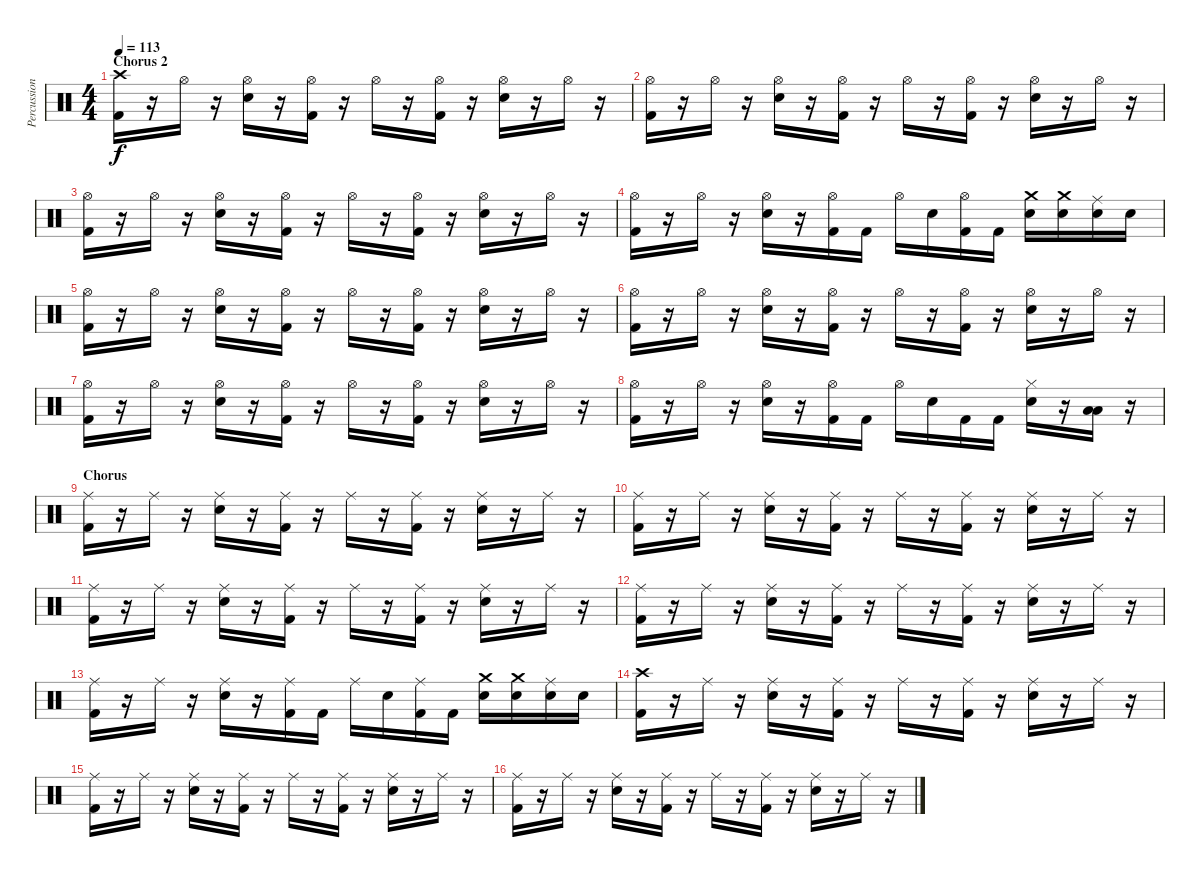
\track ("Percussion" "Percussion") {instrument percussion}
\staff {score}
\articulation defaults
\ts (4 4)
\section ("" "Chorus 2")
\tempo 113
\clef neutral
\ks c
("Crash high (hit)" "Kick (hit) 2").16{dy f} r.16 "Hi-Hat (open)".16 r.16 ("Hi-Hat (open)" "Snare (hit) 2").16 r.16 ("Hi-Hat (open)" "Kick (hit) 2").16 r.16 "Hi-Hat (open)".16 r.16 ("Hi-Hat (open)" "Kick (hit) 2").16 r.16 ("Hi-Hat (open)" "Snare (hit) 2").16 r.16 "Hi-Hat (open)".16 r.16 |
("Hi-Hat (open)" "Kick (hit) 2").16 r.16 "Hi-Hat (open)".16 r.16 ("Hi-Hat (open)" "Snare (hit) 2").16 r.16 ("Hi-Hat (open)" "Kick (hit) 2").16 r.16 "Hi-Hat (open)".16 r.16 ("Hi-Hat (open)" "Kick (hit) 2").16 r.16 ("Hi-Hat (open)" "Snare (hit) 2").16 r.16 "Hi-Hat (open)".16 r.16 |
("Hi-Hat (open)" "Kick (hit) 2").16 r.16 "Hi-Hat (open)".16 r.16 ("Hi-Hat (open)" "Snare (hit) 2").16 r.16 ("Hi-Hat (open)" "Kick (hit) 2").16 r.16 "Hi-Hat (open)".16 r.16 ("Hi-Hat (open)" "Kick (hit) 2").16 r.16 ("Hi-Hat (open)" "Snare (hit) 2").16 r.16 "Hi-Hat (open)".16 r.16 |
("Hi-Hat (open)" "Kick (hit) 2").16 r.16 "Hi-Hat (open)".16 r.16 ("Hi-Hat (open)" "Snare (hit) 2").16 r.16 ("Hi-Hat (open)" "Kick (hit) 2").16 "Kick (hit) 2".16 "Hi-Hat (open)".16 "Snare (hit) 2".16 ("Hi-Hat (open)" "Kick (hit) 2").16 "Kick (hit) 2".16 ("Crash medium (hit)" "Snare (hit) 2").16 ("Crash medium (hit)" "Snare (hit) 2").16 ("Ride (middle)" "Snare (hit) 2").16 "Snare (hit) 2".16 |
("Hi-Hat (open)" "Kick (hit) 2").16 r.16 "Hi-Hat (open)".16 r.16 ("Hi-Hat (open)" "Snare (hit) 2").16 r.16 ("Hi-Hat (open)" "Kick (hit) 2").16 r.16 "Hi-Hat (open)".16 r.16 ("Hi-Hat (open)" "Kick (hit) 2").16 r.16 ("Hi-Hat (open)" "Snare (hit) 2").16 r.16 "Hi-Hat (open)".16 r.16 |
("Hi-Hat (open)" "Kick (hit) 2").16 r.16 "Hi-Hat (open)".16 r.16 ("Hi-Hat (open)" "Snare (hit) 2").16 r.16 ("Hi-Hat (open)" "Kick (hit) 2").16 r.16 "Hi-Hat (open)".16 r.16 ("Hi-Hat (open)" "Kick (hit) 2").16 r.16 ("Hi-Hat (open)" "Snare (hit) 2").16 r.16 "Hi-Hat (open)".16 r.16 |
("Hi-Hat (open)" "Kick (hit) 2").16 r.16 "Hi-Hat (open)".16 r.16 ("Hi-Hat (open)" "Snare (hit) 2").16 r.16 ("Hi-Hat (open)" "Kick (hit) 2").16 r.16 "Hi-Hat (open)".16 r.16 ("Hi-Hat (open)" "Kick (hit) 2").16 r.16 ("Hi-Hat (open)" "Snare (hit) 2").16 r.16 "Hi-Hat (open)".16 r.16 |
("Hi-Hat (open)" "Kick (hit) 2").16 r.16 "Hi-Hat (open)".16 r.16 ("Hi-Hat (open)" "Snare (hit) 2").16 r.16 ("Hi-Hat (open)" "Kick (hit) 2").16 "Kick (hit) 2".16 "Hi-Hat (open)".16 "Snare (hit) 2".16 "Kick (hit) 2".16 "Kick (hit) 2".16 ("Hi-Hat (closed)" "Snare (hit) 2").16 r.16 ("Low Tom (hit)" "Low Tom (hit)").16 r.16 |
\section ("" "Chorus")
("Ride (middle)" "Kick (hit) 2").16 r.16 "Ride (middle)".16 r.16 ("Ride (middle)" "Snare (hit) 2").16 r.16 ("Ride (middle)" "Kick (hit) 2").16 r.16 "Ride (middle)".16 r.16 ("Ride (middle)" "Kick (hit) 2").16 r.16 ("Ride (middle)" "Snare (hit) 2").16 r.16 "Ride (middle)".16 r.16 |
("Ride (middle)" "Kick (hit) 2").16 r.16 "Ride (middle)".16 r.16 ("Ride (middle)" "Snare (hit) 2").16 r.16 ("Ride (middle)" "Kick (hit) 2").16 r.16 "Ride (middle)".16 r.16 ("Ride (middle)" "Kick (hit) 2").16 r.16 ("Ride (middle)" "Snare (hit) 2").16 r.16 "Ride (middle)".16 r.16 |
("Ride (middle)" "Kick (hit) 2").16 r.16 "Ride (middle)".16 r.16 ("Ride (middle)" "Snare (hit) 2").16 r.16 ("Ride (middle)" "Kick (hit) 2").16 r.16 "Ride (middle)".16 r.16 ("Ride (middle)" "Kick (hit) 2").16 r.16 ("Ride (middle)" "Snare (hit) 2").16 r.16 "Ride (middle)".16 r.16 |
("Ride (middle)" "Kick (hit) 2").16 r.16 "Ride (middle)".16 r.16 ("Ride (middle)" "Snare (hit) 2").16 r.16 ("Ride (middle)" "Kick (hit) 2").16 r.16 "Ride (middle)".16 r.16 ("Ride (middle)" "Kick (hit) 2").16 r.16 ("Ride (middle)" "Snare (hit) 2").16 r.16 "Ride (middle)".16 r.16 |
("Ride (middle)" "Kick (hit) 2").16 r.16 "Ride (middle)".16 r.16 ("Ride (middle)" "Snare (hit) 2").16 r.16 ("Ride (middle)" "Kick (hit) 2").16 "Kick (hit) 2".16 "Ride (middle)".16 "Snare (hit) 2".16 ("Ride (middle)" "Kick (hit) 2").16 "Kick (hit) 2".16 ("Crash medium (hit)" "Snare (hit) 2").16 ("Crash medium (hit)" "Snare (hit) 2").16 ("Ride (middle)" "Snare (hit) 2").16 "Snare (hit) 2".16 |
("Crash high (hit)" "Kick (hit) 2").16 r.16 "Ride (middle)".16 r.16 ("Ride (middle)" "Snare (hit) 2").16 r.16 ("Ride (middle)" "Kick (hit) 2").16 r.16 "Ride (middle)".16 r.16 ("Ride (middle)" "Kick (hit) 2").16 r.16 ("Ride (middle)" "Snare (hit) 2").16 r.16 "Ride (middle)".16 r.16 |
("Ride (middle)" "Kick (hit) 2").16 r.16 "Ride (middle)".16 r.16 ("Ride (middle)" "Snare (hit) 2").16 r.16 ("Ride (middle)" "Kick (hit) 2").16 r.16 "Ride (middle)".16 r.16 ("Ride (middle)" "Kick (hit) 2").16 r.16 ("Ride (middle)" "Snare (hit) 2").16 r.16 "Ride (middle)".16 r.16 |
("Ride (middle)" "Kick (hit) 2").16 r.16 "Ride (middle)".16 r.16 ("Ride (middle)" "Snare (hit) 2").16 r.16 ("Ride (middle)" "Kick (hit) 2").16 r.16 "Ride (middle)".16 r.16 ("Ride (middle)" "Kick (hit) 2").16 r.16 ("Ride (middle)" "Snare (hit) 2").16 r.16 "Ride (middle)".16 r.16
